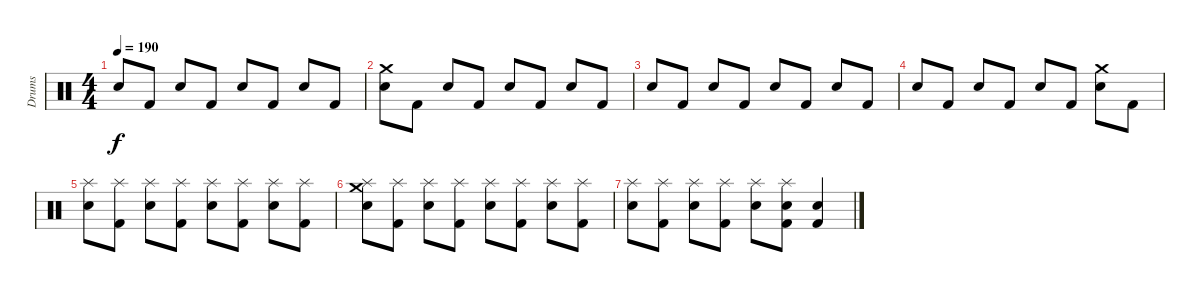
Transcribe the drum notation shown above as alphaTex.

\track ("Drums" "Drums") {instrument percussion}
\staff {score}
\articulation defaults
\ts (4 4)
\tempo 190
\clef neutral
\ks c "Electric Snare (hit)".8{dy f} "Kick (hit) 2".8 "Electric Snare (hit)".8 "Kick (hit) 2".8 "Electric Snare (hit)".8 "Kick (hit) 2".8 "Electric Snare (hit)".8 "Kick (hit) 2".8
|
("Crash medium (hit)" "Electric Snare (hit)").8 "Kick (hit) 2".8 "Electric Snare (hit)".8 "Kick (hit) 2".8 "Electric Snare (hit)".8 "Kick (hit) 2".8 "Electric Snare (hit)".8 "Kick (hit) 2".8 |
"Electric Snare (hit)".8 "Kick (hit) 2".8 "Electric Snare (hit)".8 "Kick (hit) 2".8 "Electric Snare (hit)".8 "Kick (hit) 2".8 "Electric Snare (hit)".8 "Kick (hit) 2".8 |
"Electric Snare (hit)".8 "Kick (hit) 2".8 "Electric Snare (hit)".8 "Kick (hit) 2".8 "Electric Snare (hit)".8 "Kick (hit) 2".8 ("Crash medium (hit)" "Electric Snare (hit)").8 "Kick (hit) 2".8 |
("Splash (hit)" "Electric Snare (hit)").8 ("Splash (hit)" "Kick (hit) 2").8 ("Splash (hit)" "Electric Snare (hit)").8 ("Splash (hit)" "Kick (hit) 2").8 ("Splash (hit)" "Electric Snare (hit)").8 ("Splash (hit)" "Kick (hit) 2").8 ("Splash (hit)" "Electric Snare (hit)").8 ("Splash (hit)" "Kick (hit) 2").8 |
("Crash medium (hit)" "Splash (hit)" "Electric Snare (hit)").8 ("Splash (hit)" "Kick (hit) 2").8 ("Splash (hit)" "Electric Snare (hit)").8 ("Splash (hit)" "Kick (hit) 2").8 ("Splash (hit)" "Electric Snare (hit)").8 ("Splash (hit)" "Kick (hit) 2").8 ("Splash (hit)" "Electric Snare (hit)").8 ("Splash (hit)" "Kick (hit) 2").8 |
("Splash (hit)" "Electric Snare (hit)").8 ("Splash (hit)" "Kick (hit) 2").8 ("Splash (hit)" "Electric Snare (hit)").8 ("Splash (hit)" "Kick (hit) 2").8 ("Splash (hit)" "Electric Snare (hit)").8 ("Splash (hit)" "Electric Snare (hit)" "Kick (hit) 2").8 ("Electric Snare (hit)" "Kick (hit) 2").4
